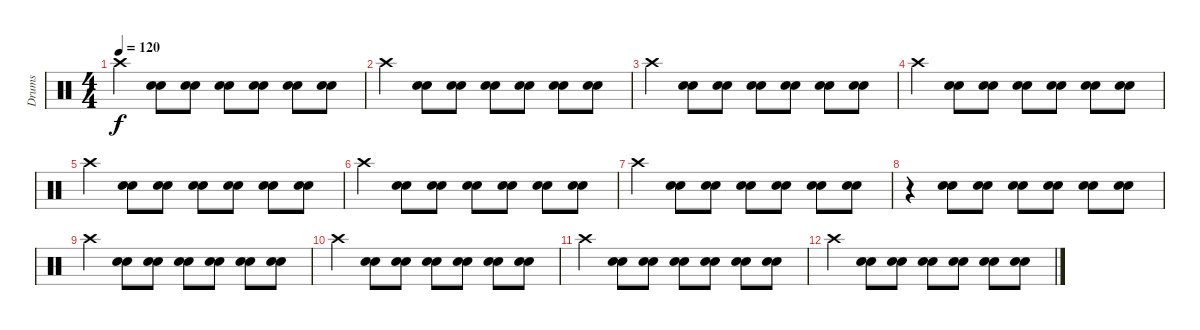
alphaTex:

\track ("Drums" "Drums") {instrument percussion}
\staff {score}
\articulation defaults
\ts (4 4)
\tempo 120
\clef neutral
\ks c "Crash high (hit)".4{dy f}
("Electric Snare (hit)" "Electric Snare (hit)").8 ("Electric Snare (hit)" "Electric Snare (hit)").8 ("Electric Snare (hit)" "Electric Snare (hit)").8 ("Electric Snare (hit)" "Electric Snare (hit)").8 ("Electric Snare (hit)" "Electric Snare (hit)").8 ("Electric Snare (hit)" "Electric Snare (hit)").8 |
"Crash high (hit)".4 ("Electric Snare (hit)" "Electric Snare (hit)").8 ("Electric Snare (hit)" "Electric Snare (hit)").8 ("Electric Snare (hit)" "Electric Snare (hit)").8 ("Electric Snare (hit)" "Electric Snare (hit)").8 ("Electric Snare (hit)" "Electric Snare (hit)").8 ("Electric Snare (hit)" "Electric Snare (hit)").8 |
"Crash high (hit)".4 ("Electric Snare (hit)" "Electric Snare (hit)").8 ("Electric Snare (hit)" "Electric Snare (hit)").8 ("Electric Snare (hit)" "Electric Snare (hit)").8 ("Electric Snare (hit)" "Electric Snare (hit)").8 ("Electric Snare (hit)" "Electric Snare (hit)").8 ("Electric Snare (hit)" "Electric Snare (hit)").8 |
"Crash high (hit)".4 ("Electric Snare (hit)" "Electric Snare (hit)").8 ("Electric Snare (hit)" "Electric Snare (hit)").8 ("Electric Snare (hit)" "Electric Snare (hit)").8 ("Electric Snare (hit)" "Electric Snare (hit)").8 ("Electric Snare (hit)" "Electric Snare (hit)").8 ("Electric Snare (hit)" "Electric Snare (hit)").8 |
"Crash high (hit)".4 ("Electric Snare (hit)" "Electric Snare (hit)").8 ("Electric Snare (hit)" "Electric Snare (hit)").8 ("Electric Snare (hit)" "Electric Snare (hit)").8 ("Electric Snare (hit)" "Electric Snare (hit)").8 ("Electric Snare (hit)" "Electric Snare (hit)").8 ("Electric Snare (hit)" "Electric Snare (hit)").8 |
"Crash high (hit)".4 ("Electric Snare (hit)" "Electric Snare (hit)").8 ("Electric Snare (hit)" "Electric Snare (hit)").8 ("Electric Snare (hit)" "Electric Snare (hit)").8 ("Electric Snare (hit)" "Electric Snare (hit)").8 ("Electric Snare (hit)" "Electric Snare (hit)").8 ("Electric Snare (hit)" "Electric Snare (hit)").8 |
"Crash high (hit)".4 ("Electric Snare (hit)" "Electric Snare (hit)").8 ("Electric Snare (hit)" "Electric Snare (hit)").8 ("Electric Snare (hit)" "Electric Snare (hit)").8 ("Electric Snare (hit)" "Electric Snare (hit)").8 ("Electric Snare (hit)" "Electric Snare (hit)").8 ("Electric Snare (hit)" "Electric Snare (hit)").8 |
r.4 ("Electric Snare (hit)" "Electric Snare (hit)").8 ("Electric Snare (hit)" "Electric Snare (hit)").8 ("Electric Snare (hit)" "Electric Snare (hit)").8 ("Electric Snare (hit)" "Electric Snare (hit)").8 ("Electric Snare (hit)" "Electric Snare (hit)").8 ("Electric Snare (hit)" "Electric Snare (hit)").8 |
"Crash high (hit)".4 ("Electric Snare (hit)" "Electric Snare (hit)").8 ("Electric Snare (hit)" "Electric Snare (hit)").8 ("Electric Snare (hit)" "Electric Snare (hit)").8 ("Electric Snare (hit)" "Electric Snare (hit)").8 ("Electric Snare (hit)" "Electric Snare (hit)").8 ("Electric Snare (hit)" "Electric Snare (hit)").8 |
"Crash high (hit)".4 ("Electric Snare (hit)" "Electric Snare (hit)").8 ("Electric Snare (hit)" "Electric Snare (hit)").8 ("Electric Snare (hit)" "Electric Snare (hit)").8 ("Electric Snare (hit)" "Electric Snare (hit)").8 ("Electric Snare (hit)" "Electric Snare (hit)").8 ("Electric Snare (hit)" "Electric Snare (hit)").8 |
"Crash high (hit)".4 ("Electric Snare (hit)" "Electric Snare (hit)").8 ("Electric Snare (hit)" "Electric Snare (hit)").8 ("Electric Snare (hit)" "Electric Snare (hit)").8 ("Electric Snare (hit)" "Electric Snare (hit)").8 ("Electric Snare (hit)" "Electric Snare (hit)").8 ("Electric Snare (hit)" "Electric Snare (hit)").8 |
"Crash high (hit)".4 ("Electric Snare (hit)" "Electric Snare (hit)").8 ("Electric Snare (hit)" "Electric Snare (hit)").8 ("Electric Snare (hit)" "Electric Snare (hit)").8 ("Electric Snare (hit)" "Electric Snare (hit)").8 ("Electric Snare (hit)" "Electric Snare (hit)").8 ("Electric Snare (hit)" "Electric Snare (hit)").8
